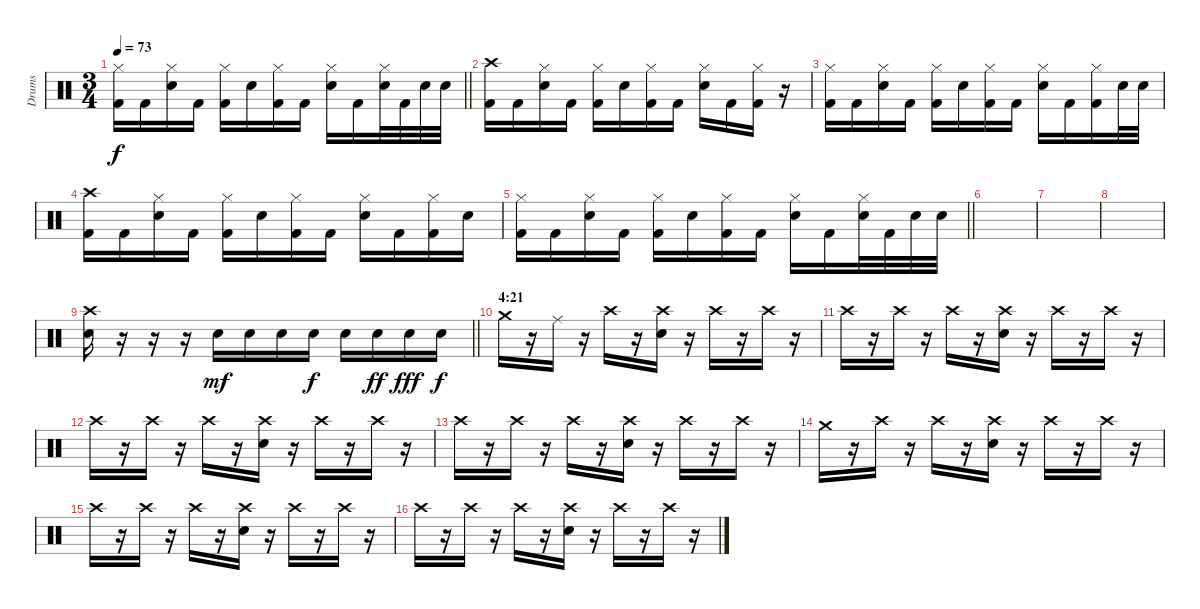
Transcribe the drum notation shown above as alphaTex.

\track ("Drums" "Drums") {instrument percussion}
\staff {score}
\articulation defaults
\ts (3 4)
\tempo 73
\clef neutral
\barLineRight lightlight
\ks c
("Hi-Hat (closed)" "Kick (hit) 2").16{dy f} "Kick (hit) 2".16 ("Hi-Hat (closed)" "Electric Snare (hit)").16 "Kick (hit) 2".16 ("Hi-Hat (closed)" "Kick (hit) 2").16 "Electric Snare (hit)".16 ("Hi-Hat (closed)" "Kick (hit) 2").16 "Kick (hit) 2".16 ("Hi-Hat (closed)" "Electric Snare (hit)").16 "Kick (hit) 2".16 ("Hi-Hat (closed)" "Electric Snare (hit)").32 "Kick (hit) 2".32 "Electric Snare (hit)".32 "Electric Snare (hit)".32 |
("Crash high (hit)" "Kick (hit) 2").16 "Kick (hit) 2".16 ("Hi-Hat (closed)" "Electric Snare (hit)").16 "Kick (hit) 2".16 ("Hi-Hat (closed)" "Kick (hit) 2").16 "Electric Snare (hit)".16 ("Hi-Hat (closed)" "Kick (hit) 2").16 "Kick (hit) 2".16 ("Hi-Hat (closed)" "Electric Snare (hit)").16 "Kick (hit) 2".16 ("Hi-Hat (closed)" "Kick (hit) 2").16 r.16 |
("Hi-Hat (closed)" "Kick (hit) 2").16 "Kick (hit) 2".16 ("Hi-Hat (closed)" "Electric Snare (hit)").16 "Kick (hit) 2".16 ("Hi-Hat (closed)" "Kick (hit) 2").16 "Electric Snare (hit)".16 ("Hi-Hat (closed)" "Kick (hit) 2").16 "Kick (hit) 2".16 ("Hi-Hat (closed)" "Electric Snare (hit)").16 "Kick (hit) 2".16 ("Hi-Hat (closed)" "Kick (hit) 2").16 "Electric Snare (hit)".32 "Electric Snare (hit)".32 |
("Crash high (hit)" "Kick (hit) 2").16 "Kick (hit) 2".16 ("Hi-Hat (closed)" "Electric Snare (hit)").16 "Kick (hit) 2".16 ("Hi-Hat (closed)" "Kick (hit) 2").16 "Electric Snare (hit)".16 ("Hi-Hat (closed)" "Kick (hit) 2").16 "Kick (hit) 2".16 ("Hi-Hat (closed)" "Electric Snare (hit)").16 "Kick (hit) 2".16 ("Hi-Hat (closed)" "Kick (hit) 2").16 "Electric Snare (hit)".16 |
\barLineRight lightlight
("Hi-Hat (closed)" "Kick (hit) 2").16 "Kick (hit) 2".16 ("Hi-Hat (closed)" "Electric Snare (hit)").16 "Kick (hit) 2".16 ("Hi-Hat (closed)" "Kick (hit) 2").16 "Electric Snare (hit)".16 ("Hi-Hat (closed)" "Kick (hit) 2").16 "Kick (hit) 2".16 ("Hi-Hat (closed)" "Electric Snare (hit)").16 "Kick (hit) 2".16 ("Hi-Hat (closed)" "Electric Snare (hit)").32 "Kick (hit) 2".32 "Electric Snare (hit)".32 "Electric Snare (hit)".32 |
|
|
|
\barLineRight lightlight
("Crash high (hit)" "Electric Snare (hit)").16 r.16 r.16 r.16 "Electric Snare (hit)".16{dy mf} "Electric Snare (hit)".16 "Electric Snare (hit)".16 "Electric Snare (hit)".16{dy f} "Electric Snare (hit)".16 "Electric Snare (hit)".16{dy ff} "Electric Snare (hit)".16{dy fff} "Electric Snare (hit)".16{dy f} |
\section ("" "4:21")
"Crash medium (hit)".16 r.16 "Ride (middle)".16 r.16 "Crash high (hit)".16 r.16 ("Crash high (hit)" "Electric Snare (hit)").16 r.16 "Crash high (hit)".16 r.16 "Crash high (hit)".16 r.16 |
"Crash high (hit)".16 r.16 "Crash high (hit)".16 r.16 "Crash high (hit)".16 r.16 ("Crash high (hit)" "Electric Snare (hit)").16 r.16 "Crash high (hit)".16 r.16 "Crash high (hit)".16 r.16 |
"Crash high (hit)".16 r.16 "Crash high (hit)".16 r.16 "Crash high (hit)".16 r.16 ("Crash high (hit)" "Electric Snare (hit)").16 r.16 "Crash high (hit)".16 r.16 "Crash high (hit)".16 r.16 |
"Crash high (hit)".16 r.16 "Crash high (hit)".16 r.16 "Crash high (hit)".16 r.16 ("Crash high (hit)" "Electric Snare (hit)").16 r.16 "Crash high (hit)".16 r.16 "Crash high (hit)".16 r.16 |
"Crash medium (hit)".16 r.16 "Crash high (hit)".16 r.16 "Crash high (hit)".16 r.16 ("Crash high (hit)" "Electric Snare (hit)").16 r.16 "Crash high (hit)".16 r.16 "Crash high (hit)".16 r.16 |
"Crash high (hit)".16 r.16 "Crash high (hit)".16 r.16 "Crash high (hit)".16 r.16 ("Crash high (hit)" "Electric Snare (hit)").16 r.16 "Crash high (hit)".16 r.16 "Crash high (hit)".16 r.16 |
"Crash high (hit)".16 r.16 "Crash high (hit)".16 r.16 "Crash high (hit)".16 r.16 ("Crash high (hit)" "Electric Snare (hit)").16 r.16 "Crash high (hit)".16 r.16 "Crash high (hit)".16 r.16
